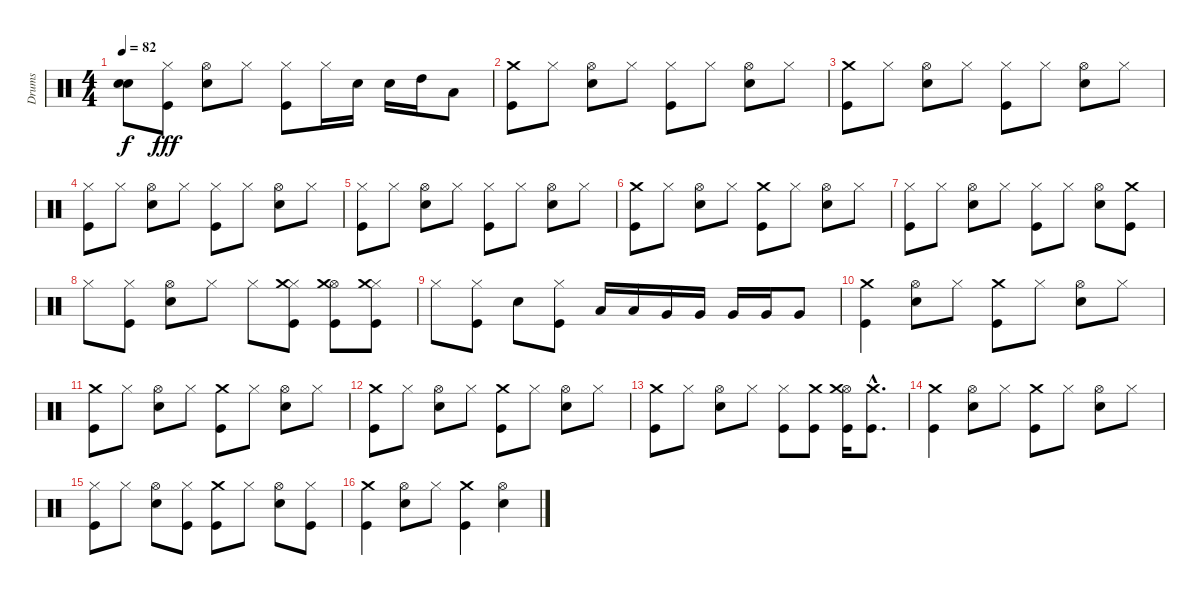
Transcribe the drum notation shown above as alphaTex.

\track ("Drums" "Drums") {instrument percussion}
\staff {score}
\articulation defaults
\ts (4 4)
\tempo 82
\clef neutral
\ks c
("Snare (hit)"{t} "Snare (hit)"{t}).8{dy f} ("Hi-Hat (closed)" "Kick (hit)").8{dy fff} ("Hi-Hat (open)" "Snare (hit) 2").8 "Hi-Hat (closed)".8 ("Hi-Hat (closed)" "Kick (hit)").8 "Hi-Hat (closed)".16 "Snare (hit) 2".16 "Snare (hit) 2".16 "High Tom (hit)".16 "Low Tom (hit)".8 |
("Crash medium (hit)" "Kick (hit)").8 "Hi-Hat (closed)".8 ("Hi-Hat (open)" "Snare (hit) 2").8 "Hi-Hat (closed)".8 ("Hi-Hat (closed)" "Kick (hit)").8 "Hi-Hat (closed)".8 ("Hi-Hat (open)" "Snare (hit) 2").8 "Hi-Hat (closed)".8 |
("Crash medium (hit)" "Kick (hit)").8 "Hi-Hat (closed)".8 ("Hi-Hat (open)" "Snare (hit) 2").8 "Hi-Hat (closed)".8 ("Hi-Hat (closed)" "Kick (hit)").8 "Hi-Hat (closed)".8 ("Hi-Hat (open)" "Snare (hit) 2").8 "Hi-Hat (closed)".8 |
("Hi-Hat (closed)" "Kick (hit)").8 "Hi-Hat (closed)".8 ("Hi-Hat (open)" "Snare (hit) 2").8 "Hi-Hat (closed)".8 ("Hi-Hat (closed)" "Kick (hit)").8 "Hi-Hat (closed)".8 ("Hi-Hat (open)" "Snare (hit) 2").8 "Hi-Hat (closed)".8 |
("Hi-Hat (closed)" "Kick (hit)").8 "Hi-Hat (closed)".8 ("Hi-Hat (open)" "Snare (hit) 2").8 "Hi-Hat (closed)".8 ("Hi-Hat (closed)" "Kick (hit)").8 "Hi-Hat (closed)".8 ("Hi-Hat (open)" "Snare (hit) 2").8 "Hi-Hat (closed)".8 |
("Crash medium (hit)" "Kick (hit)").8 "Hi-Hat (closed)".8 ("Hi-Hat (open)" "Snare (hit) 2").8 "Hi-Hat (closed)".8 ("Crash medium (hit)" "Kick (hit)").8 "Hi-Hat (closed)".8 ("Hi-Hat (open)" "Snare (hit) 2").8 "Hi-Hat (closed)".8 |
("Hi-Hat (closed)" "Kick (hit)").8 "Hi-Hat (closed)".8 ("Hi-Hat (open)" "Snare (hit) 2").8 "Hi-Hat (closed)".8 ("Hi-Hat (closed)" "Kick (hit)").8 "Hi-Hat (closed)".8 ("Hi-Hat (open)" "Snare (hit) 2").8 ("Crash medium (hit)" "Kick (hit)").8 |
"Hi-Hat (closed)".8 ("Hi-Hat (closed)" "Kick (hit)").8 ("Hi-Hat (open)" "Snare (hit) 2").8 "Hi-Hat (closed)".8 "Hi-Hat (closed)".8 ("Hi-Hat (closed)" "Crash medium (hit)" "Kick (hit)").8 ("Hi-Hat (open)" "Crash medium (hit)" "Kick (hit)").8 ("Hi-Hat (closed)" "Crash medium (hit)" "Kick (hit)").8 |
"Hi-Hat (closed)".8 ("Hi-Hat (closed)" "Kick (hit)").8 "Snare (hit) 2".8 ("Hi-Hat (closed)" "Kick (hit)").8 "Low Tom (hit)".16 "Low Tom (hit)".16 "Very Low Tom (hit)".16 "Very Low Tom (hit)".16 "Very Low Tom (hit)".16 "Very Low Tom (hit)".16 "Very Low Tom (hit)".8 |
("Crash medium (hit)" "Kick (hit)").4 ("Hi-Hat (open)" "Snare (hit) 2").8 "Hi-Hat (closed)".8 ("Crash medium (hit)" "Kick (hit)").8 "Hi-Hat (closed)".8 ("Hi-Hat (open)" "Snare (hit) 2").8 "Hi-Hat (closed)".8 |
("Crash medium (hit)" "Kick (hit)").8 "Hi-Hat (closed)".8 ("Hi-Hat (open)" "Snare (hit) 2").8 "Hi-Hat (closed)".8 ("Crash medium (hit)" "Kick (hit)").8 "Hi-Hat (closed)".8 ("Hi-Hat (open)" "Snare (hit) 2").8 "Hi-Hat (closed)".8 |
("Crash medium (hit)" "Kick (hit)").8 "Hi-Hat (closed)".8 ("Hi-Hat (open)" "Snare (hit) 2").8 "Hi-Hat (closed)".8 ("Crash medium (hit)" "Kick (hit)").8 "Hi-Hat (closed)".8 ("Hi-Hat (open)" "Snare (hit) 2").8 "Hi-Hat (closed)".8 |
("Crash medium (hit)" "Kick (hit)").8 "Hi-Hat (closed)".8 ("Hi-Hat (open)" "Snare (hit) 2").8 "Hi-Hat (closed)".8 ("Hi-Hat (closed)" "Kick (hit)").8 ("Crash medium (hit)" "Kick (hit)").8 ("Hi-Hat (open)" "Crash medium (hit)" "Kick (hit)").16 ("Crash medium (hit)"{hac} "Kick (hit)"{hac}).8{d} |
("Crash medium (hit)" "Kick (hit)").4 ("Hi-Hat (open)" "Snare (hit) 2").8 "Hi-Hat (closed)".8 ("Crash medium (hit)" "Kick (hit)").8 "Hi-Hat (closed)".8 ("Hi-Hat (open)" "Snare (hit) 2").8 "Hi-Hat (closed)".8 |
("Hi-Hat (closed)" "Kick (hit)").8 "Hi-Hat (closed)".8 ("Hi-Hat (open)" "Snare (hit) 2").8 ("Hi-Hat (closed)" "Kick (hit)").8 ("Crash medium (hit)" "Kick (hit)").8 "Hi-Hat (closed)".8 ("Hi-Hat (open)" "Snare (hit) 2").8 ("Hi-Hat (closed)" "Kick (hit)").8 |
("Crash medium (hit)" "Kick (hit)").4 ("Hi-Hat (open)" "Snare (hit) 2").8 "Hi-Hat (closed)".8 ("Crash medium (hit)" "Kick (hit)").4 ("Hi-Hat (open)" "Snare (hit) 2").4
